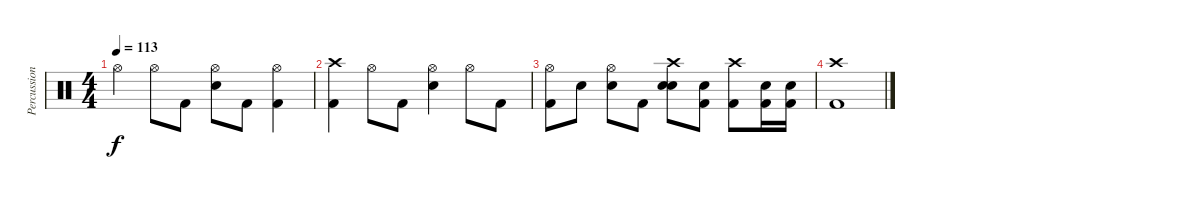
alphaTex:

\track ("Percussion" "Percussion") {instrument percussion}
\staff {score}
\articulation defaults
\ts (4 4)
\tempo 113
\clef neutral
\ks c "Hi-Hat (open)".4{dy f} "Hi-Hat (open)".8 "Kick (hit) 2".8
("Hi-Hat (open)" "Electric Snare (hit)").8 "Kick (hit) 2".8 ("Hi-Hat (open)" "Kick (hit) 2").4 |
("Crash high (hit)" "Kick (hit) 2").4 "Hi-Hat (open)".8 "Kick (hit) 2".8 ("Hi-Hat (open)" "Electric Snare (hit)").4 "Hi-Hat (open)".8 "Kick (hit) 2".8 |
("Hi-Hat (open)" "Kick (hit) 2").8 "Electric Snare (hit)".8 ("Hi-Hat (open)" "Electric Snare (hit)").8 "Kick (hit) 2".8 ("Crash high (hit)" "Electric Snare (hit)" "Electric Snare (hit)").8 ("Electric Snare (hit)" "Kick (hit) 2").8 ("Crash high (hit)" "Kick (hit) 2").8 ("Electric Snare (hit)" "Kick (hit) 2").16 ("Electric Snare (hit)" "Kick (hit) 2").16 |
("Crash high (hit)" "Kick (hit) 2").1
